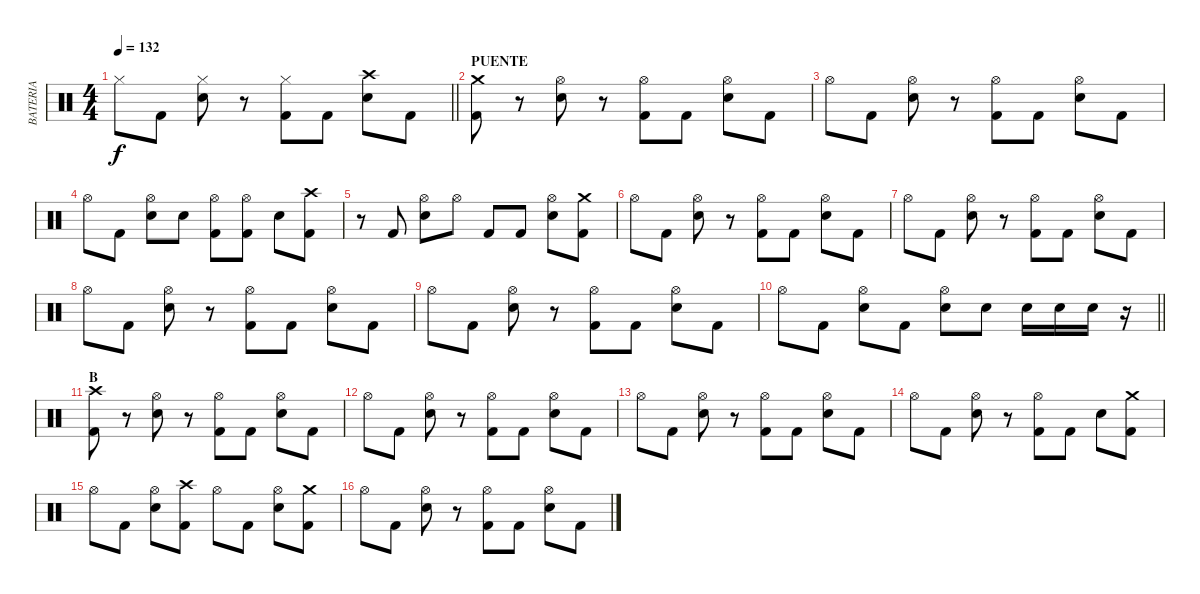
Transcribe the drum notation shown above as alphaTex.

\track ("BATERIA" "BATERIA") {instrument percussion}
\staff {score}
\articulation defaults
\ts (4 4)
\tempo 132
\clef neutral
\barLineRight lightlight
\ks c "Hi-Hat (closed)".8{dy f} "Kick (hit) 2".8
("Hi-Hat (closed)" "Electric Snare (hit)").8 r.8 ("Kick (hit) 2" "Hi-Hat (closed)").8 "Kick (hit) 2".8 ("Crash high (hit)" "Electric Snare (hit)").8 "Kick (hit) 2".8 |
\section ("" "PUENTE")
("Kick (hit) 2" "Crash medium (hit)").8 r.8 ("Hi-Hat (open)" "Electric Snare (hit)").8 r.8 ("Kick (hit) 2" "Hi-Hat (open)").8 "Kick (hit) 2".8 ("Hi-Hat (open)" "Electric Snare (hit)").8 "Kick (hit) 2".8 |
"Hi-Hat (open)".8 "Kick (hit) 2".8 ("Hi-Hat (open)" "Electric Snare (hit)").8 r.8 ("Kick (hit) 2" "Hi-Hat (open)").8 "Kick (hit) 2".8 ("Hi-Hat (open)" "Electric Snare (hit)").8 "Kick (hit) 2".8 |
"Hi-Hat (open)".8 "Kick (hit) 2".8 ("Hi-Hat (open)" "Electric Snare (hit)").8 "Electric Snare (hit)".8 ("Kick (hit) 2" "Hi-Hat (open)").8 ("Kick (hit) 2" "Hi-Hat (open)").8 "Electric Snare (hit)".8 ("Kick (hit) 2" "Crash high (hit)").8 |
r.8 "Kick (hit) 2".8 ("Hi-Hat (open)" "Electric Snare (hit)").8 "Hi-Hat (open)".8 "Kick (hit) 2".8 "Kick (hit) 2".8 ("Hi-Hat (open)" "Electric Snare (hit)").8 ("Kick (hit) 2" "Crash medium (hit)").8 |
"Hi-Hat (open)".8 "Kick (hit) 2".8 ("Hi-Hat (open)" "Electric Snare (hit)").8 r.8 ("Kick (hit) 2" "Hi-Hat (open)").8 "Kick (hit) 2".8 ("Hi-Hat (open)" "Electric Snare (hit)").8 "Kick (hit) 2".8 |
"Hi-Hat (open)".8 "Kick (hit) 2".8 ("Hi-Hat (open)" "Electric Snare (hit)").8 r.8 ("Kick (hit) 2" "Hi-Hat (open)").8 "Kick (hit) 2".8 ("Hi-Hat (open)" "Electric Snare (hit)").8 "Kick (hit) 2".8 |
"Hi-Hat (open)".8 "Kick (hit) 2".8 ("Hi-Hat (open)" "Electric Snare (hit)").8 r.8 ("Kick (hit) 2" "Hi-Hat (open)").8 "Kick (hit) 2".8 ("Hi-Hat (open)" "Electric Snare (hit)").8 "Kick (hit) 2".8 |
"Hi-Hat (open)".8 "Kick (hit) 2".8 ("Hi-Hat (open)" "Electric Snare (hit)").8 r.8 ("Kick (hit) 2" "Hi-Hat (open)").8 "Kick (hit) 2".8 ("Hi-Hat (open)" "Electric Snare (hit)").8 "Kick (hit) 2".8 |
\barLineRight lightlight "Hi-Hat (open)".8 "Kick (hit) 2".8
("Hi-Hat (open)" "Electric Snare (hit)").8 "Kick (hit) 2".8 ("Hi-Hat (open)" "Electric Snare (hit)").8 "Electric Snare (hit)".8 "Electric Snare (hit)".16 "Electric Snare (hit)".16 "Electric Snare (hit)".16 r.16 |
\section ("" "B")
("Kick (hit) 2" "Crash high (hit)").8 r.8 ("Hi-Hat (open)" "Electric Snare (hit)").8 r.8 ("Kick (hit) 2" "Hi-Hat (open)").8 "Kick (hit) 2".8 ("Hi-Hat (open)" "Electric Snare (hit)").8 "Kick (hit) 2".8 |
"Hi-Hat (open)".8 "Kick (hit) 2".8 ("Hi-Hat (open)" "Electric Snare (hit)").8 r.8 ("Kick (hit) 2" "Hi-Hat (open)").8 "Kick (hit) 2".8 ("Hi-Hat (open)" "Electric Snare (hit)").8 "Kick (hit) 2".8 |
"Hi-Hat (open)".8 "Kick (hit) 2".8 ("Hi-Hat (open)" "Electric Snare (hit)").8 r.8 ("Kick (hit) 2" "Hi-Hat (open)").8 "Kick (hit) 2".8 ("Hi-Hat (open)" "Electric Snare (hit)").8 "Kick (hit) 2".8 |
"Hi-Hat (open)".8 "Kick (hit) 2".8 ("Hi-Hat (open)" "Electric Snare (hit)").8 r.8 ("Kick (hit) 2" "Hi-Hat (open)").8 "Kick (hit) 2".8 "Electric Snare (hit)".8 ("Kick (hit) 2" "Crash medium (hit)").8 |
"Hi-Hat (open)".8 "Kick (hit) 2".8 ("Hi-Hat (open)" "Electric Snare (hit)").8 ("Kick (hit) 2" "Crash high (hit)").8 "Hi-Hat (open)".8 "Kick (hit) 2".8 ("Hi-Hat (open)" "Electric Snare (hit)").8 ("Kick (hit) 2" "Crash medium (hit)").8 |
"Hi-Hat (open)".8 "Kick (hit) 2".8 ("Hi-Hat (open)" "Electric Snare (hit)").8 r.8 ("Kick (hit) 2" "Hi-Hat (open)").8 "Kick (hit) 2".8 ("Hi-Hat (open)" "Electric Snare (hit)").8 "Kick (hit) 2".8
